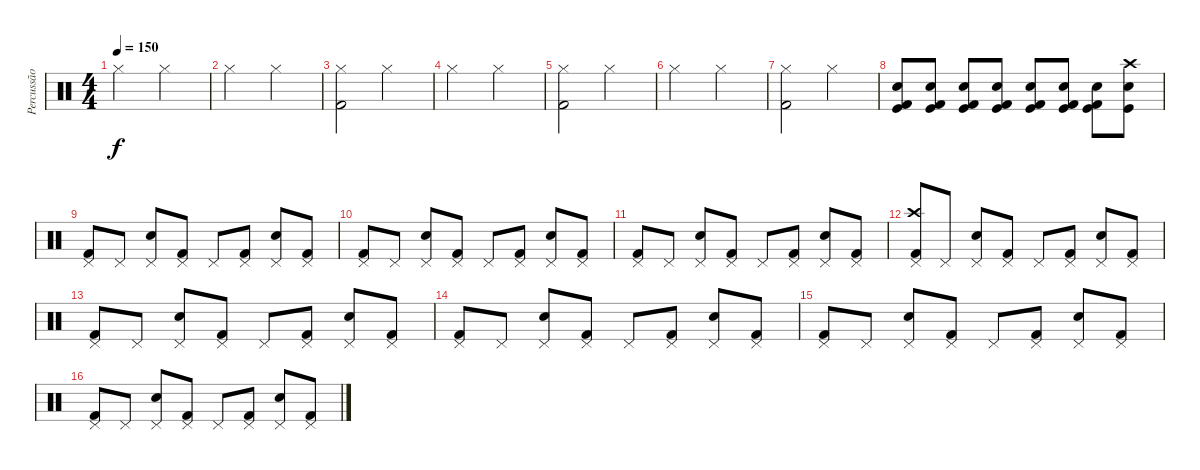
\track ("Percussão" "Percussão") {instrument percussion}
\staff {score}
\articulation defaults
\ts (4 4)
\tempo 150
\clef neutral
\ks c "Hi-Hat (closed)".2{dy f} "Hi-Hat (closed)".2
|
"Hi-Hat (closed)".2 "Hi-Hat (closed)".2 |
("Hi-Hat (closed)" "Kick (hit) 2").2 "Hi-Hat (closed)".2 |
"Hi-Hat (closed)".2 "Hi-Hat (closed)".2 |
("Hi-Hat (closed)" "Kick (hit) 2").2 "Hi-Hat (closed)".2 |
"Hi-Hat (closed)".2 "Hi-Hat (closed)".2 |
("Hi-Hat (closed)" "Kick (hit) 2").2 "Hi-Hat (closed)".2 |
("Electric Snare (hit)" "Kick (hit)" "Kick (hit) 2").8 ("Electric Snare (hit)" "Kick (hit)" "Kick (hit) 2").8 ("Electric Snare (hit)" "Kick (hit)" "Kick (hit) 2").8 ("Electric Snare (hit)" "Kick (hit)" "Kick (hit) 2").8 ("Electric Snare (hit)" "Kick (hit)" "Kick (hit) 2").8 ("Electric Snare (hit)" "Kick (hit)" "Kick (hit) 2").8 ("Electric Snare (hit)" "Kick (hit)" "Kick (hit) 2").8 ("Electric Snare (hit)" "Kick (hit)" "Crash high (hit)").8 |
("Pedal Hi-Hat (hit)" "Kick (hit) 2").8 "Pedal Hi-Hat (hit)".8 ("Pedal Hi-Hat (hit)" "Electric Snare (hit)").8 ("Pedal Hi-Hat (hit)" "Kick (hit) 2").8 "Pedal Hi-Hat (hit)".8 ("Pedal Hi-Hat (hit)" "Kick (hit) 2").8 ("Pedal Hi-Hat (hit)" "Electric Snare (hit)").8 ("Pedal Hi-Hat (hit)" "Kick (hit) 2").8 |
("Pedal Hi-Hat (hit)" "Kick (hit) 2").8 "Pedal Hi-Hat (hit)".8 ("Pedal Hi-Hat (hit)" "Electric Snare (hit)").8 ("Pedal Hi-Hat (hit)" "Kick (hit) 2").8 "Pedal Hi-Hat (hit)".8 ("Pedal Hi-Hat (hit)" "Kick (hit) 2").8 ("Pedal Hi-Hat (hit)" "Electric Snare (hit)").8 ("Pedal Hi-Hat (hit)" "Kick (hit) 2").8 |
("Pedal Hi-Hat (hit)" "Kick (hit) 2").8 "Pedal Hi-Hat (hit)".8 ("Pedal Hi-Hat (hit)" "Electric Snare (hit)").8 ("Pedal Hi-Hat (hit)" "Kick (hit) 2").8 "Pedal Hi-Hat (hit)".8 ("Pedal Hi-Hat (hit)" "Kick (hit) 2").8 ("Pedal Hi-Hat (hit)" "Electric Snare (hit)").8 ("Pedal Hi-Hat (hit)" "Kick (hit) 2").8 |
("Pedal Hi-Hat (hit)" "Crash high (hit)" "Kick (hit) 2").8 "Pedal Hi-Hat (hit)".8 ("Pedal Hi-Hat (hit)" "Electric Snare (hit)").8 ("Pedal Hi-Hat (hit)" "Kick (hit) 2").8 "Pedal Hi-Hat (hit)".8 ("Pedal Hi-Hat (hit)" "Kick (hit) 2").8 ("Pedal Hi-Hat (hit)" "Electric Snare (hit)").8 ("Pedal Hi-Hat (hit)" "Kick (hit) 2").8 |
("Pedal Hi-Hat (hit)" "Kick (hit) 2").8 "Pedal Hi-Hat (hit)".8 ("Pedal Hi-Hat (hit)" "Electric Snare (hit)").8 ("Pedal Hi-Hat (hit)" "Kick (hit) 2").8 "Pedal Hi-Hat (hit)".8 ("Pedal Hi-Hat (hit)" "Kick (hit) 2").8 ("Pedal Hi-Hat (hit)" "Electric Snare (hit)").8 ("Pedal Hi-Hat (hit)" "Kick (hit) 2").8 |
("Pedal Hi-Hat (hit)" "Kick (hit) 2").8 "Pedal Hi-Hat (hit)".8 ("Pedal Hi-Hat (hit)" "Electric Snare (hit)").8 ("Pedal Hi-Hat (hit)" "Kick (hit) 2").8 "Pedal Hi-Hat (hit)".8 ("Pedal Hi-Hat (hit)" "Kick (hit) 2").8 ("Pedal Hi-Hat (hit)" "Electric Snare (hit)").8 ("Pedal Hi-Hat (hit)" "Kick (hit) 2").8 |
("Pedal Hi-Hat (hit)" "Kick (hit) 2").8 "Pedal Hi-Hat (hit)".8 ("Pedal Hi-Hat (hit)" "Electric Snare (hit)").8 ("Pedal Hi-Hat (hit)" "Kick (hit) 2").8 "Pedal Hi-Hat (hit)".8 ("Pedal Hi-Hat (hit)" "Kick (hit) 2").8 ("Pedal Hi-Hat (hit)" "Electric Snare (hit)").8 ("Pedal Hi-Hat (hit)" "Kick (hit) 2").8 |
("Pedal Hi-Hat (hit)" "Kick (hit) 2").8 "Pedal Hi-Hat (hit)".8 ("Pedal Hi-Hat (hit)" "Electric Snare (hit)").8 ("Pedal Hi-Hat (hit)" "Kick (hit) 2").8 "Pedal Hi-Hat (hit)".8 ("Pedal Hi-Hat (hit)" "Kick (hit) 2").8 ("Pedal Hi-Hat (hit)" "Electric Snare (hit)").8 ("Pedal Hi-Hat (hit)" "Kick (hit) 2").8
